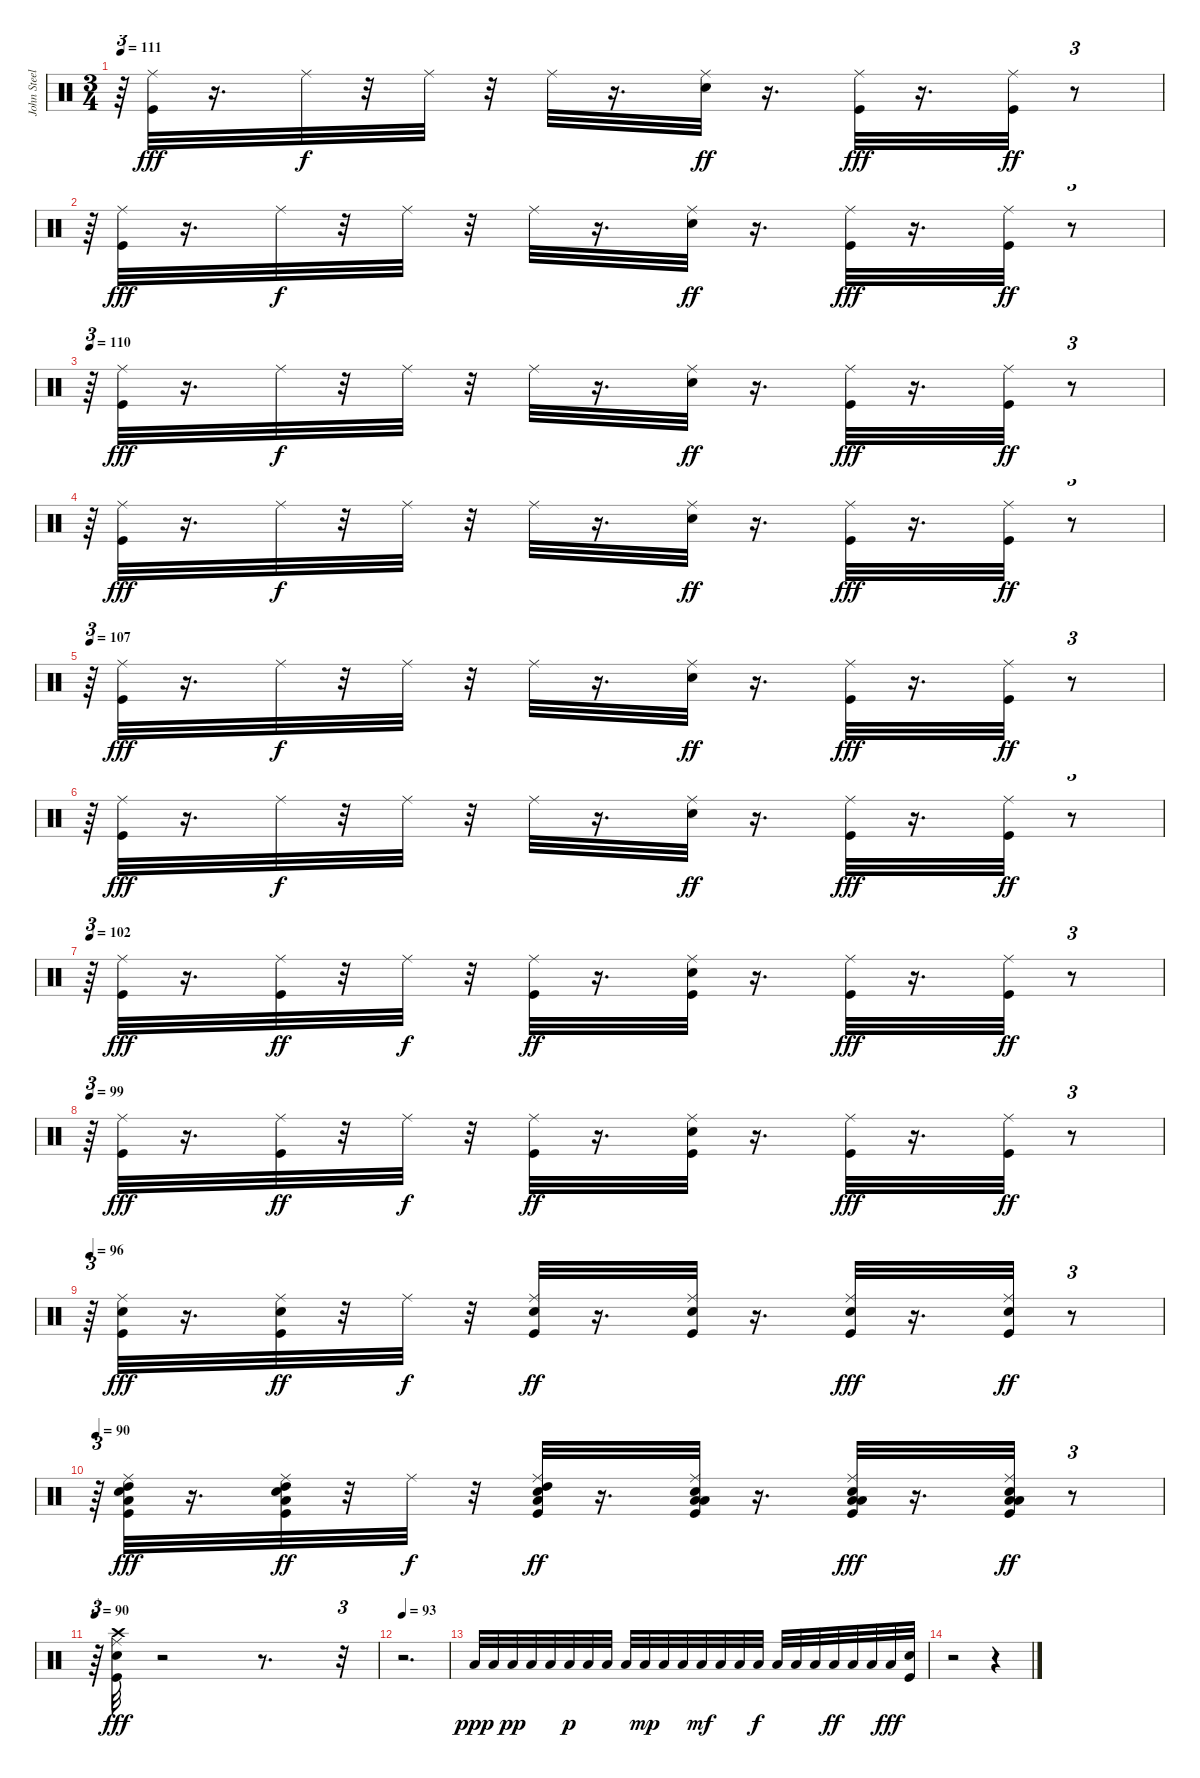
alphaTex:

\track ("John Steel" "John Steel") {instrument percussion}
\staff {score}
\articulation defaults
\ts (3 4)
\tempo 111
\clef neutral
\ks c
r.64{tu (3 2) dy ff} ("Kick (hit)" "Ride (middle)").32{dy fff} r.16{d} "Ride (middle)".32{dy f} r.32 "Ride (middle)".32 r.32 "Ride (middle)".32 r.16{d} ("Snare (hit) 2" "Ride (middle)").32{dy ff} r.16{d} ("Kick (hit)" "Ride (middle)").32{dy fff} r.16{d} ("Kick (hit)" "Ride (middle)").32{dy ff} r.8{tu (3 2)} |
r.64{tu (3 2)} ("Kick (hit)" "Ride (middle)").32{dy fff} r.16{d} "Ride (middle)".32{dy f} r.32 "Ride (middle)".32 r.32 "Ride (middle)".32 r.16{d} ("Snare (hit) 2" "Ride (middle)").32{dy ff} r.16{d} ("Kick (hit)" "Ride (middle)").32{dy fff} r.16{d} ("Kick (hit)" "Ride (middle)").32{dy ff} r.8{tu (3 2)} |
\tempo 110
r.64{tu (3 2)} ("Kick (hit)" "Ride (middle)").32{dy fff} r.16{d} "Ride (middle)".32{dy f} r.32 "Ride (middle)".32 r.32 "Ride (middle)".32 r.16{d} ("Snare (hit) 2" "Ride (middle)").32{dy ff} r.16{d} ("Kick (hit)" "Ride (middle)").32{dy fff} r.16{d} ("Kick (hit)" "Ride (middle)").32{dy ff} r.8{tu (3 2)} |
r.64{tu (3 2)} ("Kick (hit)" "Ride (middle)").32{dy fff} r.16{d} "Ride (middle)".32{dy f} r.32 "Ride (middle)".32 r.32 "Ride (middle)".32 r.16{d} ("Snare (hit) 2" "Ride (middle)").32{dy ff} r.16{d} ("Kick (hit)" "Ride (middle)").32{dy fff} r.16{d} ("Kick (hit)" "Ride (middle)").32{dy ff} r.8{tu (3 2)} |
\tempo 107
r.64{tu (3 2)} ("Kick (hit)" "Ride (middle)").32{dy fff} r.16{d} "Ride (middle)".32{dy f} r.32 "Ride (middle)".32 r.32 "Ride (middle)".32 r.16{d} ("Snare (hit) 2" "Ride (middle)").32{dy ff} r.16{d} ("Kick (hit)" "Ride (middle)").32{dy fff} r.16{d} ("Kick (hit)" "Ride (middle)").32{dy ff} r.8{tu (3 2)} |
r.64{tu (3 2)} ("Kick (hit)" "Ride (middle)").32{dy fff} r.16{d} "Ride (middle)".32{dy f} r.32 "Ride (middle)".32 r.32 "Ride (middle)".32 r.16{d} ("Snare (hit) 2" "Ride (middle)").32{dy ff} r.16{d} ("Kick (hit)" "Ride (middle)").32{dy fff} r.16{d} ("Kick (hit)" "Ride (middle)").32{dy ff} r.8{tu (3 2)} |
\tempo 102
r.64{tu (3 2)} ("Kick (hit)" "Ride (middle)").32{dy fff} r.16{d} ("Kick (hit)" "Ride (middle)").32{dy ff} r.32 "Ride (middle)".32{dy f} r.32 ("Kick (hit)" "Ride (middle)").32{dy ff} r.16{d} ("Kick (hit)" "Snare (hit) 2" "Ride (middle)").32 r.16{d} ("Kick (hit)" "Ride (middle)").32{dy fff} r.16{d} ("Kick (hit)" "Ride (middle)").32{dy ff} r.8{tu (3 2)} |
\tempo 99
r.64{tu (3 2)} ("Kick (hit)" "Ride (middle)").32{dy fff} r.16{d} ("Kick (hit)" "Ride (middle)").32{dy ff} r.32 "Ride (middle)".32{dy f} r.32 ("Kick (hit)" "Ride (middle)").32{dy ff} r.16{d} ("Kick (hit)" "Snare (hit) 2" "Ride (middle)").32 r.16{d} ("Kick (hit)" "Ride (middle)").32{dy fff} r.16{d} ("Kick (hit)" "Ride (middle)").32{dy ff} r.8{tu (3 2)} |
\tempo 96
r.64{tu (3 2)} ("Kick (hit)" "Snare (hit) 2" "Ride (middle)").32{dy fff} r.16{d} ("Kick (hit)" "Snare (hit) 2" "Ride (middle)").32{dy ff} r.32 "Ride (middle)".32{dy f} r.32 ("Kick (hit)" "Snare (hit) 2" "Ride (middle)").32{dy ff} r.16{d} ("Kick (hit)" "Snare (hit) 2" "Ride (middle)").32 r.16{d} ("Kick (hit)" "Snare (hit) 2" "Ride (middle)").32{dy fff} r.16{d} ("Kick (hit)" "Snare (hit) 2" "Ride (middle)").32{dy ff} r.8{tu (3 2)} |
\tempo 90
r.64{tu (3 2)} ("Kick (hit)" "Snare (hit) 2" "Low Tom (hit)" "High Tom (hit)" "Ride (middle)").32{dy fff} r.16{d} ("Kick (hit)" "Snare (hit) 2" "Low Tom (hit)" "High Tom (hit)" "Ride (middle)").32{dy ff} r.32 "Ride (middle)".32{dy f} r.32 ("Kick (hit)" "Snare (hit) 2" "Low Tom (hit)" "High Tom (hit)" "Ride (middle)").32{dy ff} r.16{d} ("Kick (hit)" "Snare (hit) 2" "Low Floor Tom (hit)" "Low Tom (hit)" "Ride (middle)").32 r.16{d} ("Kick (hit)" "Snare (hit) 2" "Low Floor Tom (hit)" "Low Tom (hit)" "Ride (middle)").32{dy fff} r.16{d} ("Kick (hit)" "Snare (hit) 2" "Low Floor Tom (hit)" "Low Tom (hit)" "Ride (middle)").32{dy ff} r.8{tu (3 2)} |
\tempo 90
r.64{tu (3 2)} ("Kick (hit)" "Snare (hit) 2" "Crash high (hit)" "Ride (middle)").32{dy fff} r.2 r.8{d} r.32{tu (3 2)} |
\tempo 93
r.2{d} |
"Low Tom (hit)".32{dy ppp} "Low Floor Tom (hit)".32 "Low Tom (hit)".32{dy pp} "Low Floor Tom (hit)".32 "Low Tom (hit)".32 "Low Floor Tom (hit)".32{dy p} "Low Tom (hit)".32 "Low Floor Tom (hit)".32 "Low Tom (hit)".32 "Low Floor Tom (hit)".32{dy mp} "Low Tom (hit)".32 "Low Floor Tom (hit)".32 "Low Tom (hit)".32{dy mf} "Low Floor Tom (hit)".32 "Low Tom (hit)".32 "Low Floor Tom (hit)".32{dy f} "Low Tom (hit)".32 "Low Floor Tom (hit)".32 "Low Tom (hit)".32 "Low Floor Tom (hit)".32{dy ff} "Low Tom (hit)".32 "Low Floor Tom (hit)".32 "Low Tom (hit)".32{dy fff} ("Kick (hit)" "Snare (hit) 2").32 |
r.2 r.4
